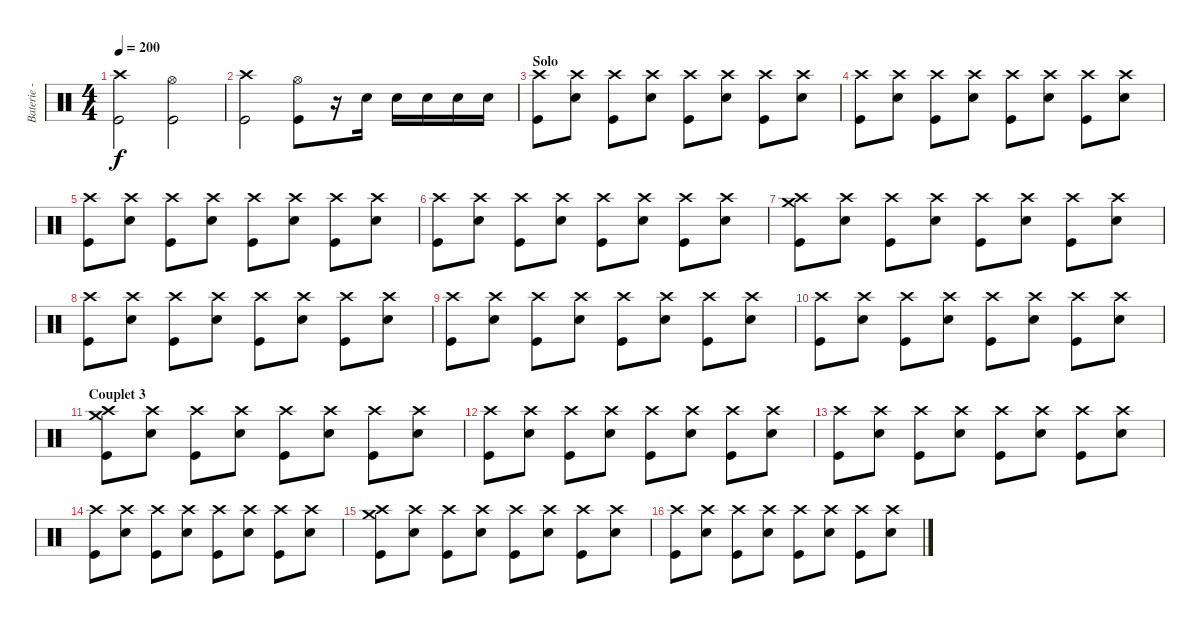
\track ("Baterie - Alex" "Baterie - ") {instrument percussion}
\staff {score}
\articulation defaults
\ts (4 4)
\tempo 200
\clef neutral
\ks c
("Crash high (hit)" "Kick (hit)").2{dy f} ("Hi-Hat (open)" "Kick (hit)").2 |
("Crash high (hit)" "Kick (hit)").2 ("Hi-Hat (open)" "Kick (hit)").8 r.16 "Electric Snare (hit)".16 "Electric Snare (hit)".16 "Electric Snare (hit)".16 "Electric Snare (hit)".16 "Electric Snare (hit)".16 |
\section ("" "Solo")
("Crash high (hit)" "Kick (hit)").8 ("Crash high (hit)" "Electric Snare (hit)").8 ("Crash high (hit)" "Kick (hit)").8 ("Crash high (hit)" "Electric Snare (hit)").8 ("Crash high (hit)" "Kick (hit)").8 ("Crash high (hit)" "Electric Snare (hit)").8 ("Crash high (hit)" "Kick (hit)").8 ("Crash high (hit)" "Electric Snare (hit)").8 |
("Crash high (hit)" "Kick (hit)").8 ("Crash high (hit)" "Electric Snare (hit)").8 ("Crash high (hit)" "Kick (hit)").8 ("Crash high (hit)" "Electric Snare (hit)").8 ("Crash high (hit)" "Kick (hit)").8 ("Crash high (hit)" "Electric Snare (hit)").8 ("Crash high (hit)" "Kick (hit)").8 ("Crash high (hit)" "Electric Snare (hit)").8 |
("Crash high (hit)" "Kick (hit)").8 ("Crash high (hit)" "Electric Snare (hit)").8 ("Crash high (hit)" "Kick (hit)").8 ("Crash high (hit)" "Electric Snare (hit)").8 ("Crash high (hit)" "Kick (hit)").8 ("Crash high (hit)" "Electric Snare (hit)").8 ("Crash high (hit)" "Kick (hit)").8 ("Crash high (hit)" "Electric Snare (hit)").8 |
("Crash high (hit)" "Kick (hit)").8 ("Crash high (hit)" "Electric Snare (hit)").8 ("Crash high (hit)" "Kick (hit)").8 ("Crash high (hit)" "Electric Snare (hit)").8 ("Crash high (hit)" "Kick (hit)").8 ("Crash high (hit)" "Electric Snare (hit)").8 ("Crash high (hit)" "Kick (hit)").8 ("Crash high (hit)" "Electric Snare (hit)").8 |
("Crash high (hit)" "Crash medium (hit)" "Kick (hit)").8 ("Crash high (hit)" "Electric Snare (hit)").8 ("Crash high (hit)" "Kick (hit)").8 ("Crash high (hit)" "Electric Snare (hit)").8 ("Crash high (hit)" "Kick (hit)").8 ("Crash high (hit)" "Electric Snare (hit)").8 ("Crash high (hit)" "Kick (hit)").8 ("Crash high (hit)" "Electric Snare (hit)").8 |
("Crash high (hit)" "Kick (hit)").8 ("Crash high (hit)" "Electric Snare (hit)").8 ("Crash high (hit)" "Kick (hit)").8 ("Crash high (hit)" "Electric Snare (hit)").8 ("Crash high (hit)" "Kick (hit)").8 ("Crash high (hit)" "Electric Snare (hit)").8 ("Crash high (hit)" "Kick (hit)").8 ("Crash high (hit)" "Electric Snare (hit)").8 |
("Crash high (hit)" "Kick (hit)").8 ("Crash high (hit)" "Electric Snare (hit)").8 ("Crash high (hit)" "Kick (hit)").8 ("Crash high (hit)" "Electric Snare (hit)").8 ("Crash high (hit)" "Kick (hit)").8 ("Crash high (hit)" "Electric Snare (hit)").8 ("Crash high (hit)" "Kick (hit)").8 ("Crash high (hit)" "Electric Snare (hit)").8 |
("Crash high (hit)" "Kick (hit)").8 ("Crash high (hit)" "Electric Snare (hit)").8 ("Crash high (hit)" "Kick (hit)").8 ("Crash high (hit)" "Electric Snare (hit)").8 ("Crash high (hit)" "Kick (hit)").8 ("Crash high (hit)" "Electric Snare (hit)").8 ("Crash high (hit)" "Kick (hit)").8 ("Crash high (hit)" "Electric Snare (hit)").8 |
\section ("" "Couplet 3")
("Crash high (hit)" "Crash medium (hit)" "Kick (hit)").8 ("Crash high (hit)" "Electric Snare (hit)").8 ("Crash high (hit)" "Kick (hit)").8 ("Crash high (hit)" "Electric Snare (hit)").8 ("Crash high (hit)" "Kick (hit)").8 ("Crash high (hit)" "Electric Snare (hit)").8 ("Crash high (hit)" "Kick (hit)").8 ("Crash high (hit)" "Electric Snare (hit)").8 |
("Crash high (hit)" "Kick (hit)").8 ("Crash high (hit)" "Electric Snare (hit)").8 ("Crash high (hit)" "Kick (hit)").8 ("Crash high (hit)" "Electric Snare (hit)").8 ("Crash high (hit)" "Kick (hit)").8 ("Crash high (hit)" "Electric Snare (hit)").8 ("Crash high (hit)" "Kick (hit)").8 ("Crash high (hit)" "Electric Snare (hit)").8 |
("Crash high (hit)" "Kick (hit)").8 ("Crash high (hit)" "Electric Snare (hit)").8 ("Crash high (hit)" "Kick (hit)").8 ("Crash high (hit)" "Electric Snare (hit)").8 ("Crash high (hit)" "Kick (hit)").8 ("Crash high (hit)" "Electric Snare (hit)").8 ("Crash high (hit)" "Kick (hit)").8 ("Crash high (hit)" "Electric Snare (hit)").8 |
("Crash high (hit)" "Kick (hit)").8 ("Crash high (hit)" "Electric Snare (hit)").8 ("Crash high (hit)" "Kick (hit)").8 ("Crash high (hit)" "Electric Snare (hit)").8 ("Crash high (hit)" "Kick (hit)").8 ("Crash high (hit)" "Electric Snare (hit)").8 ("Crash high (hit)" "Kick (hit)").8 ("Crash high (hit)" "Electric Snare (hit)").8 |
("Crash high (hit)" "Crash medium (hit)" "Kick (hit)").8 ("Crash high (hit)" "Electric Snare (hit)").8 ("Crash high (hit)" "Kick (hit)").8 ("Crash high (hit)" "Electric Snare (hit)").8 ("Crash high (hit)" "Kick (hit)").8 ("Crash high (hit)" "Electric Snare (hit)").8 ("Crash high (hit)" "Kick (hit)").8 ("Crash high (hit)" "Electric Snare (hit)").8 |
("Crash high (hit)" "Kick (hit)").8 ("Crash high (hit)" "Electric Snare (hit)").8 ("Crash high (hit)" "Kick (hit)").8 ("Crash high (hit)" "Electric Snare (hit)").8 ("Crash high (hit)" "Kick (hit)").8 ("Crash high (hit)" "Electric Snare (hit)").8 ("Crash high (hit)" "Kick (hit)").8 ("Crash high (hit)" "Electric Snare (hit)").8
